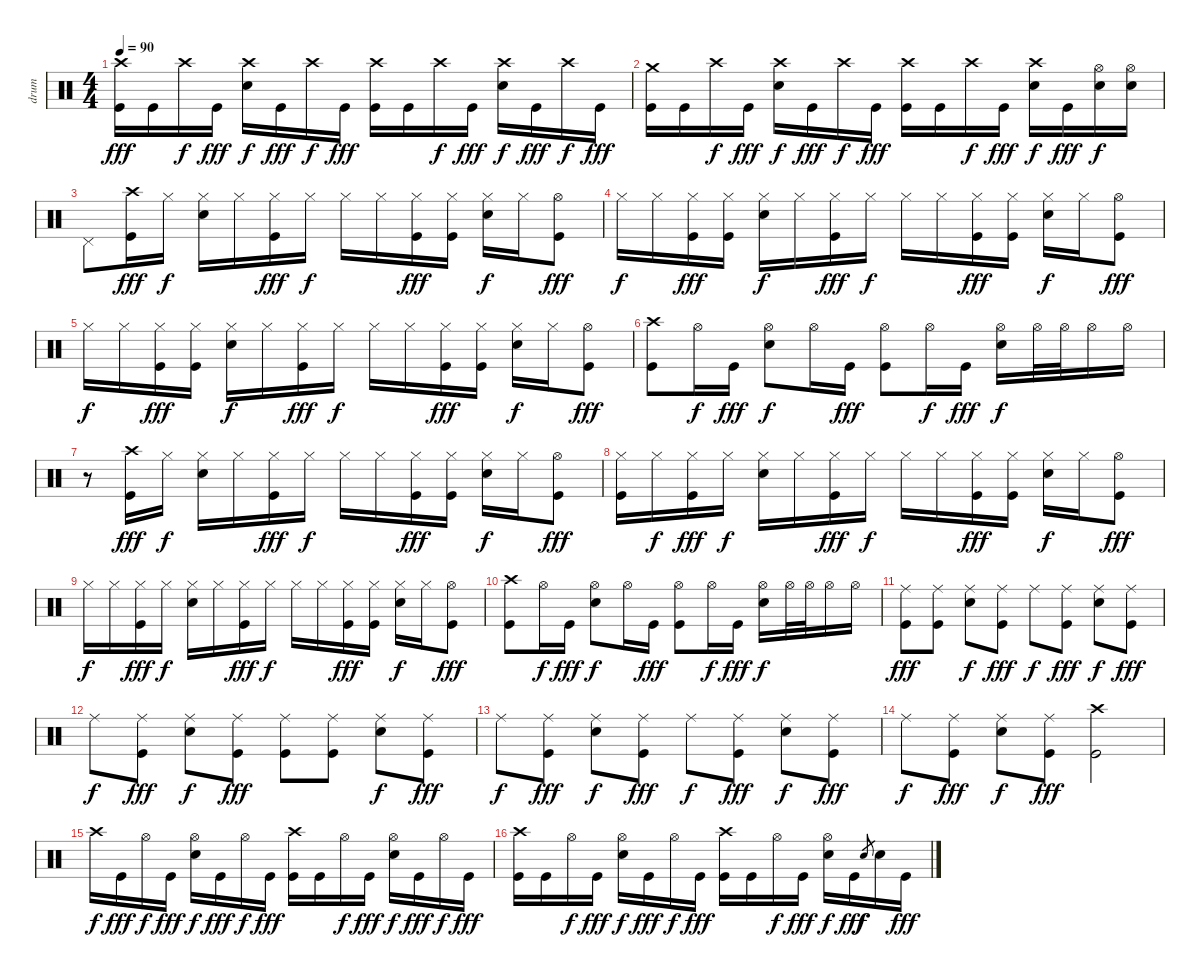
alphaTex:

\track ("drum" "drum") {instrument percussion}
\staff {score}
\articulation defaults
\ts (4 4)
\tempo 90
\clef neutral
\ks c
("Crash high (hit)" "Kick (hit)").16{dy fff} "Kick (hit)".16 "Crash high (hit)".16{dy f} "Kick (hit)".16{dy fff} ("Crash high (hit)" "Electric Snare (hit)").16{dy f} "Kick (hit)".16{dy fff} "Crash high (hit)".16{dy f} "Kick (hit)".16{dy fff} ("Crash high (hit)" "Kick (hit)").16 "Kick (hit)".16 "Crash high (hit)".16{dy f} "Kick (hit)".16{dy fff} ("Crash high (hit)" "Electric Snare (hit)").16{dy f} "Kick (hit)".16{dy fff} "Crash high (hit)".16{dy f} "Kick (hit)".16{dy fff} |
("Crash medium (hit)" "Kick (hit)").16 "Kick (hit)".16 "Crash high (hit)".16{dy f} "Kick (hit)".16{dy fff} ("Crash high (hit)" "Electric Snare (hit)").16{dy f} "Kick (hit)".16{dy fff} "Crash high (hit)".16{dy f} "Kick (hit)".16{dy fff} ("Crash high (hit)" "Kick (hit)").16 "Kick (hit)".16 "Crash high (hit)".16{dy f} "Kick (hit)".16{dy fff} ("Crash high (hit)" "Electric Snare (hit)").16{dy f} "Kick (hit)".16{dy fff} ("Hi-Hat (open)" "Electric Snare (hit)").16{dy f} ("Hi-Hat (open)" "Electric Snare (hit)").16 |
"Pedal Hi-Hat (hit)".8 ("Crash high (hit)" "Kick (hit)").16{dy fff} "Hi-Hat (closed)".16{dy f} ("Hi-Hat (closed)" "Electric Snare (hit)").16 "Hi-Hat (closed)".16 ("Hi-Hat (closed)" "Kick (hit)").16{dy fff} "Hi-Hat (closed)".16{dy f} "Hi-Hat (closed)".16 "Hi-Hat (closed)".16 ("Hi-Hat (closed)" "Kick (hit)").16{dy fff} ("Hi-Hat (closed)" "Kick (hit)").16 ("Hi-Hat (closed)" "Electric Snare (hit)").16{dy f} "Hi-Hat (closed)".16 ("Hi-Hat (open)" "Kick (hit)").8{dy fff} |
"Hi-Hat (closed)".16{dy f} "Hi-Hat (closed)".16 ("Hi-Hat (closed)" "Kick (hit)").16{dy fff} ("Hi-Hat (closed)" "Kick (hit)").16 ("Hi-Hat (closed)" "Electric Snare (hit)").16{dy f} "Hi-Hat (closed)".16 ("Hi-Hat (closed)" "Kick (hit)").16{dy fff} "Hi-Hat (closed)".16{dy f} "Hi-Hat (closed)".16 "Hi-Hat (closed)".16 ("Hi-Hat (closed)" "Kick (hit)").16{dy fff} ("Hi-Hat (closed)" "Kick (hit)").16 ("Hi-Hat (closed)" "Electric Snare (hit)").16{dy f} "Hi-Hat (closed)".16 ("Hi-Hat (open)" "Kick (hit)").8{dy fff} |
"Hi-Hat (closed)".16{dy f} "Hi-Hat (closed)".16 ("Hi-Hat (closed)" "Kick (hit)").16{dy fff} ("Hi-Hat (closed)" "Kick (hit)").16 ("Hi-Hat (closed)" "Electric Snare (hit)").16{dy f} "Hi-Hat (closed)".16 ("Hi-Hat (closed)" "Kick (hit)").16{dy fff} "Hi-Hat (closed)".16{dy f} "Hi-Hat (closed)".16 "Hi-Hat (closed)".16 ("Hi-Hat (closed)" "Kick (hit)").16{dy fff} ("Hi-Hat (closed)" "Kick (hit)").16 ("Hi-Hat (closed)" "Electric Snare (hit)").16{dy f} "Hi-Hat (closed)".16 ("Hi-Hat (open)" "Kick (hit)").8{dy fff} |
("Crash high (hit)" "Kick (hit)").8 "Hi-Hat (open)".16{dy f} "Kick (hit)".16{dy fff} ("Hi-Hat (open)" "Electric Snare (hit)").8{dy f} "Hi-Hat (open)".16 "Kick (hit)".16{dy fff} ("Hi-Hat (open)" "Kick (hit)").8 "Hi-Hat (open)".16{dy f} "Kick (hit)".16{dy fff} ("Hi-Hat (open)" "Electric Snare (hit)").16{dy f} "Hi-Hat (open)".32 "Hi-Hat (open)".32 "Hi-Hat (open)".16 "Hi-Hat (open)".16 |
r.8 ("Crash high (hit)" "Kick (hit)").16{dy fff} "Hi-Hat (closed)".16{dy f} ("Hi-Hat (closed)" "Electric Snare (hit)").16 "Hi-Hat (closed)".16 ("Hi-Hat (closed)" "Kick (hit)").16{dy fff} "Hi-Hat (closed)".16{dy f} "Hi-Hat (closed)".16 "Hi-Hat (closed)".16 ("Hi-Hat (closed)" "Kick (hit)").16{dy fff} ("Hi-Hat (closed)" "Kick (hit)").16 ("Hi-Hat (closed)" "Electric Snare (hit)").16{dy f} "Hi-Hat (closed)".16 ("Hi-Hat (open)" "Kick (hit)").8{dy fff} |
("Hi-Hat (closed)" "Kick (hit)").16 "Hi-Hat (closed)".16{dy f} ("Hi-Hat (closed)" "Kick (hit)").16{dy fff} "Hi-Hat (closed)".16{dy f} ("Hi-Hat (closed)" "Electric Snare (hit)").16 "Hi-Hat (closed)".16 ("Hi-Hat (closed)" "Kick (hit)").16{dy fff} "Hi-Hat (closed)".16{dy f} "Hi-Hat (closed)".16 "Hi-Hat (closed)".16 ("Hi-Hat (closed)" "Kick (hit)").16{dy fff} ("Hi-Hat (closed)" "Kick (hit)").16 ("Hi-Hat (closed)" "Electric Snare (hit)").16{dy f} "Hi-Hat (closed)".16 ("Hi-Hat (open)" "Kick (hit)").8{dy fff} |
"Hi-Hat (closed)".16{dy f} "Hi-Hat (closed)".16 ("Hi-Hat (closed)" "Kick (hit)").16{dy fff} "Hi-Hat (closed)".16{dy f} ("Hi-Hat (closed)" "Electric Snare (hit)").16 "Hi-Hat (closed)".16 ("Hi-Hat (closed)" "Kick (hit)").16{dy fff} "Hi-Hat (closed)".16{dy f} "Hi-Hat (closed)".16 "Hi-Hat (closed)".16 ("Hi-Hat (closed)" "Kick (hit)").16{dy fff} ("Hi-Hat (closed)" "Kick (hit)").16 ("Hi-Hat (closed)" "Electric Snare (hit)").16{dy f} "Hi-Hat (closed)".16 ("Hi-Hat (open)" "Kick (hit)").8{dy fff} |
("Crash high (hit)" "Kick (hit)").8 "Hi-Hat (open)".16{dy f} "Kick (hit)".16{dy fff} ("Hi-Hat (open)" "Electric Snare (hit)").8{dy f} "Hi-Hat (open)".16 "Kick (hit)".16{dy fff} ("Hi-Hat (open)" "Kick (hit)").8 "Hi-Hat (open)".16{dy f} "Kick (hit)".16{dy fff} ("Hi-Hat (open)" "Electric Snare (hit)").16{dy f} "Hi-Hat (open)".32 "Hi-Hat (open)".32 "Hi-Hat (open)".16 "Hi-Hat (open)".16 |
("Ride (middle)" "Kick (hit)").8{dy fff} ("Ride (middle)" "Kick (hit)").8 ("Ride (middle)" "Electric Snare (hit)").8{dy f} ("Ride (middle)" "Kick (hit)").8{dy fff} "Ride (middle)".8{dy f} ("Ride (middle)" "Kick (hit)").8{dy fff} ("Ride (middle)" "Electric Snare (hit)").8{dy f} ("Ride (middle)" "Kick (hit)").8{dy fff} |
"Ride (middle)".8{dy f} ("Ride (middle)" "Kick (hit)").8{dy fff} ("Ride (middle)" "Electric Snare (hit)").8{dy f} ("Ride (middle)" "Kick (hit)").8{dy fff} ("Ride (middle)" "Kick (hit)").8 ("Ride (middle)" "Kick (hit)").8 ("Ride (middle)" "Electric Snare (hit)").8{dy f} ("Ride (middle)" "Kick (hit)").8{dy fff} |
"Ride (middle)".8{dy f} ("Ride (middle)" "Kick (hit)").8{dy fff} ("Ride (middle)" "Electric Snare (hit)").8{dy f} ("Ride (middle)" "Kick (hit)").8{dy fff} "Ride (middle)".8{dy f} ("Ride (middle)" "Kick (hit)").8{dy fff} ("Ride (middle)" "Electric Snare (hit)").8{dy f} ("Ride (middle)" "Kick (hit)").8{dy fff} |
"Ride (middle)".8{dy f} ("Ride (middle)" "Kick (hit)").8{dy fff} ("Ride (middle)" "Electric Snare (hit)").8{dy f} ("Ride (middle)" "Kick (hit)").8{dy fff} ("Crash high (hit)" "Kick (hit)").2 |
"Crash high (hit)".16{dy f} "Kick (hit)".16{dy fff} "Hi-Hat (open)".16{dy f} "Kick (hit)".16{dy fff} ("Hi-Hat (open)" "Electric Snare (hit)").16{dy f} "Kick (hit)".16{dy fff} "Hi-Hat (open)".16{dy f} "Kick (hit)".16{dy fff} ("Crash high (hit)" "Kick (hit)").16 "Kick (hit)".16 "Hi-Hat (open)".16{dy f} "Kick (hit)".16{dy fff} ("Hi-Hat (open)" "Electric Snare (hit)").16{dy f} "Kick (hit)".16{dy fff} "Hi-Hat (open)".16{dy f} "Kick (hit)".16{dy fff} |
("Crash high (hit)" "Kick (hit)").16 "Kick (hit)".16 "Hi-Hat (open)".16{dy f} "Kick (hit)".16{dy fff} ("Hi-Hat (open)" "Electric Snare (hit)").16{dy f} "Kick (hit)".16{dy fff} "Hi-Hat (open)".16{dy f} "Kick (hit)".16{dy fff} ("Crash high (hit)" "Kick (hit)").16 "Kick (hit)".16 "Hi-Hat (open)".16{dy f} "Kick (hit)".16{dy fff} ("Hi-Hat (open)" "Electric Snare (hit)").16{dy f} "Kick (hit)".16{dy fff} "Electric Snare (hit)".8{gr dy f} "Electric Snare (hit)".16 "Kick (hit)".16{dy fff}
